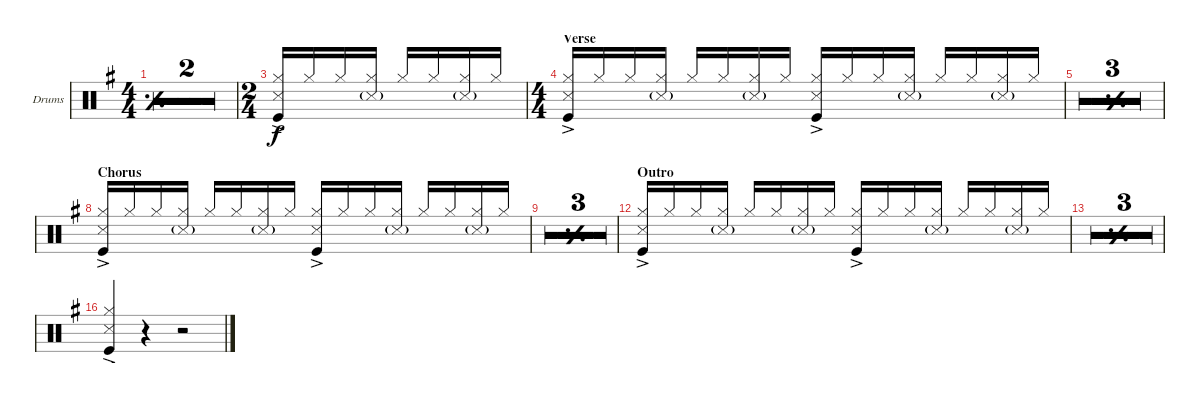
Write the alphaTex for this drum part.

\defaultSystemsLayout 4
\bracketExtendMode groupsimilarinstruments
\firstSystemTrackNameOrientation horizontal
\otherSystemsTrackNameOrientation horizontal
\track ("Drum Kit" "Drums") {multiBarRest instrument percussion}
\staff {score}
\articulation defaults
\ts (4 4)
\tempo 94
\clef neutral
\simile simple
\ks eminor
|
|
\ts (2 4)
("Hi-Hat (closed)" "Snare (side stick) 3"{ac} "Kick (hit)").16{beam invert} "Hi-Hat (closed)".16 "Hi-Hat (closed)".16 ("Hi-Hat (closed)" "Snare (side stick) 3"{g}).16 "Hi-Hat (closed)".16{beam invert} "Hi-Hat (closed)".16 ("Hi-Hat (closed)" "Snare (side stick) 3"{g}).16 "Hi-Hat (closed)".16 |
\ts (4 4)
\section ("" "Verse")
("Hi-Hat (closed)" "Snare (side stick) 3"{ac} "Kick (hit)").16{beam invert} "Hi-Hat (closed)".16 "Hi-Hat (closed)".16 ("Hi-Hat (closed)" "Snare (side stick) 3"{g}).16 "Hi-Hat (closed)".16{beam invert} "Hi-Hat (closed)".16 ("Hi-Hat (closed)" "Snare (side stick) 3"{g}).16 "Hi-Hat (closed)".16 ("Hi-Hat (closed)" "Kick (hit)" "Snare (side stick) 3"{ac}).16{beam invert} "Hi-Hat (closed)".16 "Hi-Hat (closed)".16 ("Hi-Hat (closed)" "Snare (side stick) 3"{g}).16 "Hi-Hat (closed)".16{beam invert} "Hi-Hat (closed)".16 ("Hi-Hat (closed)" "Snare (side stick) 3"{g}).16 "Hi-Hat (closed)".16 |
\simile simple
|
|
|
\section ("" "Chorus")
\simile none
("Hi-Hat (closed)" "Snare (side stick) 3"{ac} "Kick (hit)").16{beam invert} "Hi-Hat (closed)".16 "Hi-Hat (closed)".16 ("Hi-Hat (closed)" "Snare (side stick) 3"{g}).16 "Hi-Hat (closed)".16{beam invert} "Hi-Hat (closed)".16 ("Hi-Hat (closed)" "Snare (side stick) 3"{g}).16 "Hi-Hat (closed)".16 ("Hi-Hat (closed)" "Kick (hit)" "Snare (side stick) 3"{ac}).16{beam invert} "Hi-Hat (closed)".16 "Hi-Hat (closed)".16 ("Hi-Hat (closed)" "Snare (side stick) 3"{g}).16 "Hi-Hat (closed)".16{beam invert} "Hi-Hat (closed)".16 ("Hi-Hat (closed)" "Snare (side stick) 3"{g}).16 "Hi-Hat (closed)".16 |
\simile simple
|
|
|
\section ("" "Outro")
\simile none
("Hi-Hat (closed)" "Snare (side stick) 3"{ac} "Kick (hit)").16{beam invert} "Hi-Hat (closed)".16 "Hi-Hat (closed)".16 ("Hi-Hat (closed)" "Snare (side stick) 3"{g}).16 "Hi-Hat (closed)".16{beam invert} "Hi-Hat (closed)".16 ("Hi-Hat (closed)" "Snare (side stick) 3"{g}).16 "Hi-Hat (closed)".16 ("Hi-Hat (closed)" "Kick (hit)" "Snare (side stick) 3"{ac}).16{beam invert} "Hi-Hat (closed)".16 "Hi-Hat (closed)".16 ("Hi-Hat (closed)" "Snare (side stick) 3"{g}).16 "Hi-Hat (closed)".16{beam invert} "Hi-Hat (closed)".16 ("Hi-Hat (closed)" "Snare (side stick) 3"{g}).16 "Hi-Hat (closed)".16 |
\simile simple
|
|
|
\simile none
("Hi-Hat (closed)" "Snare (side stick) 3"{ac} "Kick (hit)").4{beam invert} r.4 r.2
